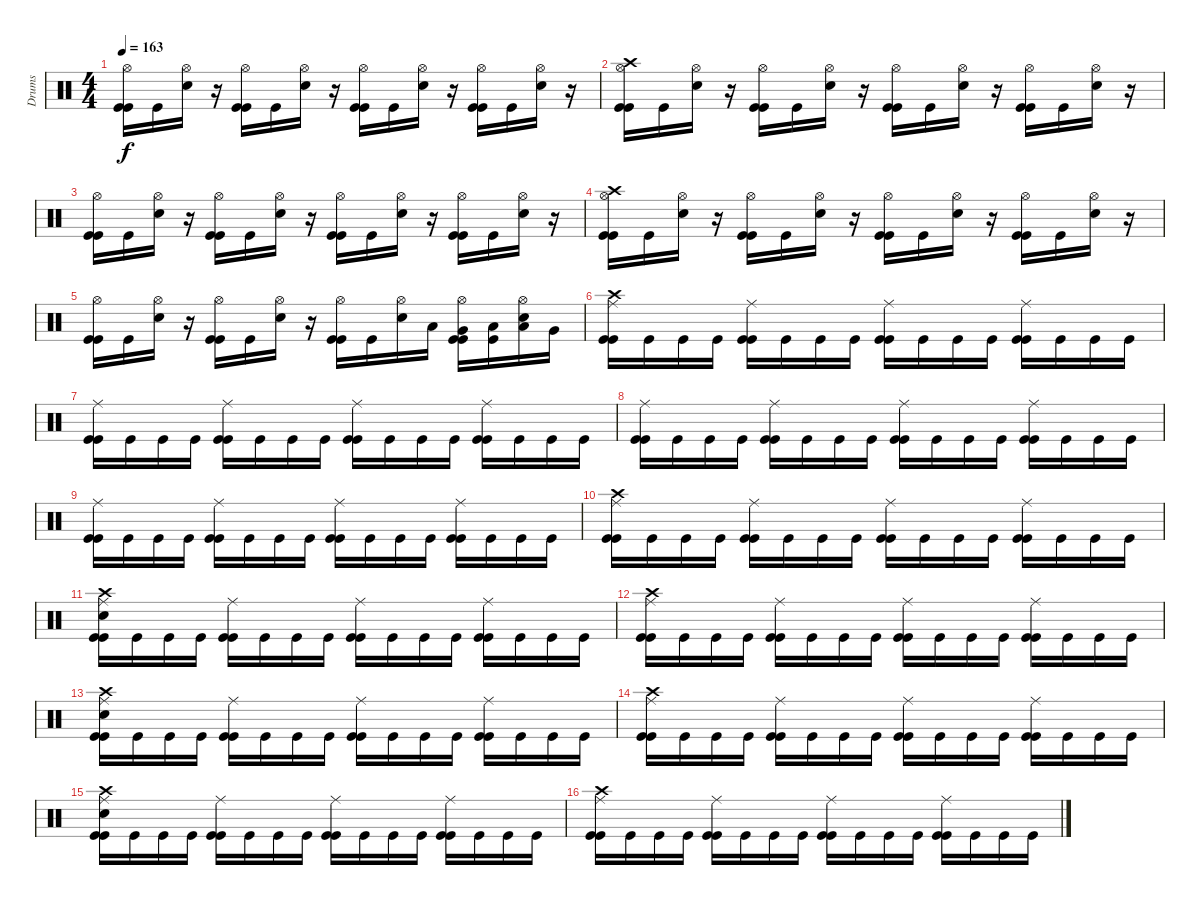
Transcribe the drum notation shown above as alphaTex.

\track ("Drums" "Drums") {instrument percussion}
\staff {score}
\articulation defaults
\ts (4 4)
\tempo 163
\clef neutral
\ks c
("Hi-Hat (open)" "Kick (hit)" "Kick (hit)").16{dy f} "Kick (hit)".16 ("Hi-Hat (open)" "Electric Snare (hit)").16 r.16 ("Hi-Hat (open)" "Kick (hit)" "Kick (hit)").16 "Kick (hit)".16 ("Hi-Hat (open)" "Electric Snare (hit)").16 r.16 ("Hi-Hat (open)" "Kick (hit)" "Kick (hit)").16 "Kick (hit)".16 ("Hi-Hat (open)" "Electric Snare (hit)").16 r.16 ("Hi-Hat (open)" "Kick (hit)" "Kick (hit)").16 "Kick (hit)".16 ("Hi-Hat (open)" "Electric Snare (hit)").16 r.16 |
("Crash high (hit)" "Hi-Hat (open)" "Kick (hit)" "Kick (hit)").16 "Kick (hit)".16 ("Hi-Hat (open)" "Electric Snare (hit)").16 r.16 ("Hi-Hat (open)" "Kick (hit)" "Kick (hit)").16 "Kick (hit)".16 ("Hi-Hat (open)" "Electric Snare (hit)").16 r.16 ("Hi-Hat (open)" "Kick (hit)" "Kick (hit)").16 "Kick (hit)".16 ("Hi-Hat (open)" "Electric Snare (hit)").16 r.16 ("Hi-Hat (open)" "Kick (hit)" "Kick (hit)").16 "Kick (hit)".16 ("Hi-Hat (open)" "Electric Snare (hit)").16 r.16 |
("Hi-Hat (open)" "Kick (hit)" "Kick (hit)").16 "Kick (hit)".16 ("Hi-Hat (open)" "Electric Snare (hit)").16 r.16 ("Hi-Hat (open)" "Kick (hit)" "Kick (hit)").16 "Kick (hit)".16 ("Hi-Hat (open)" "Electric Snare (hit)").16 r.16 ("Hi-Hat (open)" "Kick (hit)" "Kick (hit)").16 "Kick (hit)".16 ("Hi-Hat (open)" "Electric Snare (hit)").16 r.16 ("Hi-Hat (open)" "Kick (hit)" "Kick (hit)").16 "Kick (hit)".16 ("Hi-Hat (open)" "Electric Snare (hit)").16 r.16 |
("Crash high (hit)" "Hi-Hat (open)" "Kick (hit)" "Kick (hit)").16 "Kick (hit)".16 ("Hi-Hat (open)" "Electric Snare (hit)").16 r.16 ("Hi-Hat (open)" "Kick (hit)" "Kick (hit)").16 "Kick (hit)".16 ("Hi-Hat (open)" "Electric Snare (hit)").16 r.16 ("Hi-Hat (open)" "Kick (hit)" "Kick (hit)").16 "Kick (hit)".16 ("Hi-Hat (open)" "Electric Snare (hit)").16 r.16 ("Hi-Hat (open)" "Kick (hit)" "Kick (hit)").16 "Kick (hit)".16 ("Hi-Hat (open)" "Electric Snare (hit)").16 r.16 |
("Hi-Hat (open)" "Kick (hit)" "Kick (hit)").16 "Kick (hit)".16 ("Hi-Hat (open)" "Electric Snare (hit)").16 r.16 ("Hi-Hat (open)" "Kick (hit)" "Kick (hit)").16 "Kick (hit)".16 ("Hi-Hat (open)" "Electric Snare (hit)").16 r.16 ("Hi-Hat (open)" "Kick (hit)" "Kick (hit)").16 "Kick (hit)".16 ("Hi-Hat (open)" "Electric Snare (hit)").16 "Low Floor Tom (hit)".16 ("Very Low Tom (hit)" "Hi-Hat (open)" "Kick (hit)" "Kick (hit)").16 ("Low Floor Tom (hit)" "Kick (hit)").16 ("Low Tom (hit)" "Hi-Hat (open)" "Electric Snare (hit)").16 "Very Low Tom (hit)".16 |
("Crash high (hit)" "Ride (middle)" "Kick (hit)" "Kick (hit)").16 "Kick (hit)".16 "Kick (hit)".16 "Kick (hit)".16 ("Ride (middle)" "Kick (hit)" "Kick (hit)").16 "Kick (hit)".16 "Kick (hit)".16 "Kick (hit)".16 ("Ride (middle)" "Kick (hit)" "Kick (hit)").16 "Kick (hit)".16 "Kick (hit)".16 "Kick (hit)".16 ("Ride (middle)" "Kick (hit)" "Kick (hit)").16 "Kick (hit)".16 "Kick (hit)".16 "Kick (hit)".16 |
("Ride (middle)" "Kick (hit)" "Kick (hit)").16 "Kick (hit)".16 "Kick (hit)".16 "Kick (hit)".16 ("Ride (middle)" "Kick (hit)" "Kick (hit)").16 "Kick (hit)".16 "Kick (hit)".16 "Kick (hit)".16 ("Ride (middle)" "Kick (hit)" "Kick (hit)").16 "Kick (hit)".16 "Kick (hit)".16 "Kick (hit)".16 ("Ride (middle)" "Kick (hit)" "Kick (hit)").16 "Kick (hit)".16 "Kick (hit)".16 "Kick (hit)".16 |
("Ride (middle)" "Kick (hit)" "Kick (hit)").16 "Kick (hit)".16 "Kick (hit)".16 "Kick (hit)".16 ("Ride (middle)" "Kick (hit)" "Kick (hit)").16 "Kick (hit)".16 "Kick (hit)".16 "Kick (hit)".16 ("Ride (middle)" "Kick (hit)" "Kick (hit)").16 "Kick (hit)".16 "Kick (hit)".16 "Kick (hit)".16 ("Ride (middle)" "Kick (hit)" "Kick (hit)").16 "Kick (hit)".16 "Kick (hit)".16 "Kick (hit)".16 |
("Ride (middle)" "Kick (hit)" "Kick (hit)").16 "Kick (hit)".16 "Kick (hit)".16 "Kick (hit)".16 ("Ride (middle)" "Kick (hit)" "Kick (hit)").16 "Kick (hit)".16 "Kick (hit)".16 "Kick (hit)".16 ("Ride (middle)" "Kick (hit)" "Kick (hit)").16 "Kick (hit)".16 "Kick (hit)".16 "Kick (hit)".16 ("Ride (middle)" "Kick (hit)" "Kick (hit)").16 "Kick (hit)".16 "Kick (hit)".16 "Kick (hit)".16 |
("Crash high (hit)" "Ride (middle)" "Kick (hit)" "Kick (hit)").16 "Kick (hit)".16 "Kick (hit)".16 "Kick (hit)".16 ("Ride (middle)" "Kick (hit)" "Kick (hit)").16 "Kick (hit)".16 "Kick (hit)".16 "Kick (hit)".16 ("Ride (middle)" "Kick (hit)" "Kick (hit)").16 "Kick (hit)".16 "Kick (hit)".16 "Kick (hit)".16 ("Ride (middle)" "Kick (hit)" "Kick (hit)").16 "Kick (hit)".16 "Kick (hit)".16 "Kick (hit)".16 |
("Crash high (hit)" "Electric Snare (hit)" "Ride (middle)" "Kick (hit)" "Kick (hit)").16 "Kick (hit)".16 "Kick (hit)".16 "Kick (hit)".16 ("Ride (middle)" "Kick (hit)" "Kick (hit)").16 "Kick (hit)".16 "Kick (hit)".16 "Kick (hit)".16 ("Ride (middle)" "Kick (hit)" "Kick (hit)").16 "Kick (hit)".16 "Kick (hit)".16 "Kick (hit)".16 ("Ride (middle)" "Kick (hit)" "Kick (hit)").16 "Kick (hit)".16 "Kick (hit)".16 "Kick (hit)".16 |
("Crash high (hit)" "Ride (middle)" "Kick (hit)" "Kick (hit)").16 "Kick (hit)".16 "Kick (hit)".16 "Kick (hit)".16 ("Ride (middle)" "Kick (hit)" "Kick (hit)").16 "Kick (hit)".16 "Kick (hit)".16 "Kick (hit)".16 ("Ride (middle)" "Kick (hit)" "Kick (hit)").16 "Kick (hit)".16 "Kick (hit)".16 "Kick (hit)".16 ("Ride (middle)" "Kick (hit)" "Kick (hit)").16 "Kick (hit)".16 "Kick (hit)".16 "Kick (hit)".16 |
("Crash high (hit)" "Electric Snare (hit)" "Ride (middle)" "Kick (hit)" "Kick (hit)").16 "Kick (hit)".16 "Kick (hit)".16 "Kick (hit)".16 ("Ride (middle)" "Kick (hit)" "Kick (hit)").16 "Kick (hit)".16 "Kick (hit)".16 "Kick (hit)".16 ("Ride (middle)" "Kick (hit)" "Kick (hit)").16 "Kick (hit)".16 "Kick (hit)".16 "Kick (hit)".16 ("Ride (middle)" "Kick (hit)" "Kick (hit)").16 "Kick (hit)".16 "Kick (hit)".16 "Kick (hit)".16 |
("Crash high (hit)" "Ride (middle)" "Kick (hit)" "Kick (hit)").16 "Kick (hit)".16 "Kick (hit)".16 "Kick (hit)".16 ("Ride (middle)" "Kick (hit)" "Kick (hit)").16 "Kick (hit)".16 "Kick (hit)".16 "Kick (hit)".16 ("Ride (middle)" "Kick (hit)" "Kick (hit)").16 "Kick (hit)".16 "Kick (hit)".16 "Kick (hit)".16 ("Ride (middle)" "Kick (hit)" "Kick (hit)").16 "Kick (hit)".16 "Kick (hit)".16 "Kick (hit)".16 |
("Crash high (hit)" "Electric Snare (hit)" "Ride (middle)" "Kick (hit)" "Kick (hit)").16 "Kick (hit)".16 "Kick (hit)".16 "Kick (hit)".16 ("Ride (middle)" "Kick (hit)" "Kick (hit)").16 "Kick (hit)".16 "Kick (hit)".16 "Kick (hit)".16 ("Ride (middle)" "Kick (hit)" "Kick (hit)").16 "Kick (hit)".16 "Kick (hit)".16 "Kick (hit)".16 ("Ride (middle)" "Kick (hit)" "Kick (hit)").16 "Kick (hit)".16 "Kick (hit)".16 "Kick (hit)".16 |
("Crash high (hit)" "Ride (middle)" "Kick (hit)" "Kick (hit)").16 "Kick (hit)".16 "Kick (hit)".16 "Kick (hit)".16 ("Ride (middle)" "Kick (hit)" "Kick (hit)").16 "Kick (hit)".16 "Kick (hit)".16 "Kick (hit)".16 ("Ride (middle)" "Kick (hit)" "Kick (hit)").16 "Kick (hit)".16 "Kick (hit)".16 "Kick (hit)".16 ("Ride (middle)" "Kick (hit)" "Kick (hit)").16 "Kick (hit)".16 "Kick (hit)".16 "Kick (hit)".16
